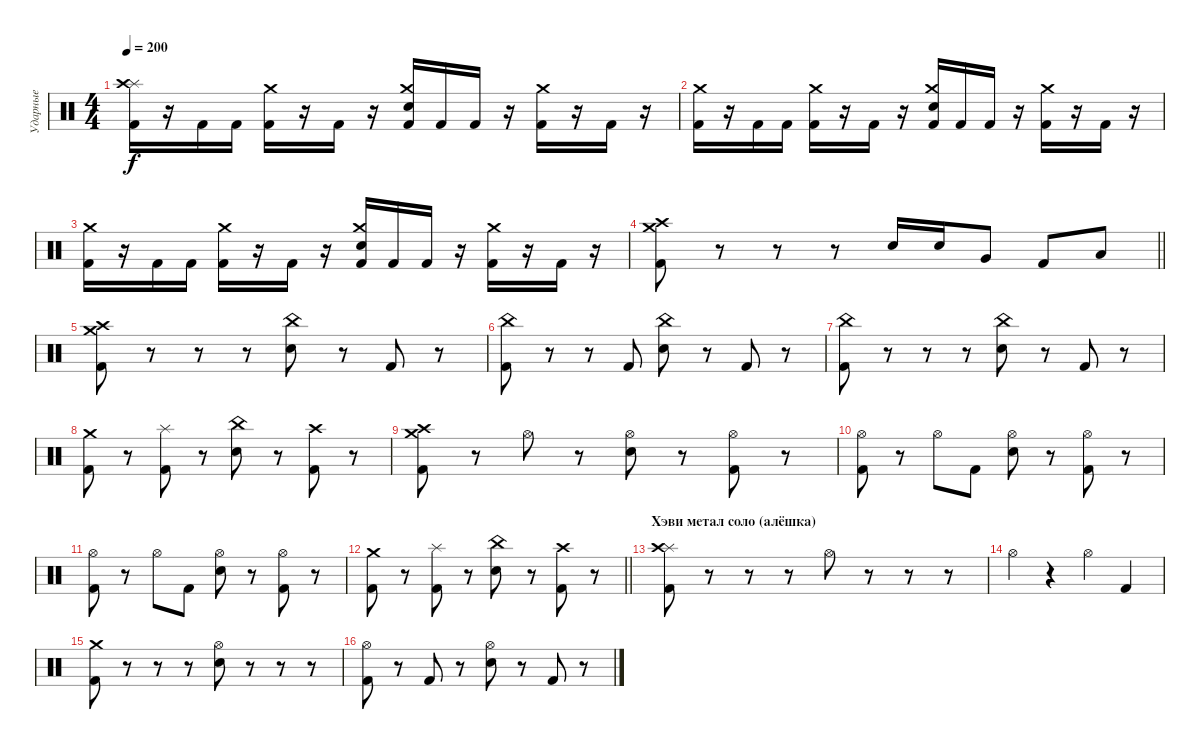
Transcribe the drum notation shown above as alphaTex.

\track ("Ударные" "Ударные") {instrument percussion}
\staff {score}
\articulation defaults
\ts (4 4)
\tempo 200
\clef neutral
\ks c
("Kick (hit) 2" "Splash (hit)" "Crash high (hit)").16{dy f} r.16 "Kick (hit) 2".16 "Kick (hit) 2".16 ("Kick (hit) 2" "Crash medium (hit)").16 r.16 "Kick (hit) 2".16 r.16 ("Kick (hit) 2" "Electric Snare (hit)" "Crash medium (hit)").16 "Kick (hit) 2".16 "Kick (hit) 2".16 r.16 ("Kick (hit) 2" "Crash medium (hit)").16 r.16 "Kick (hit) 2".16 r.16 |
("Kick (hit) 2" "Crash medium (hit)").16 r.16 "Kick (hit) 2".16 "Kick (hit) 2".16 ("Kick (hit) 2" "Crash medium (hit)").16 r.16 "Kick (hit) 2".16 r.16 ("Kick (hit) 2" "Electric Snare (hit)" "Crash medium (hit)").16 "Kick (hit) 2".16 "Kick (hit) 2".16 r.16 ("Kick (hit) 2" "Crash medium (hit)").16 r.16 "Kick (hit) 2".16 r.16 |
("Kick (hit) 2" "Crash medium (hit)").16 r.16 "Kick (hit) 2".16 "Kick (hit) 2".16 ("Kick (hit) 2" "Crash medium (hit)").16 r.16 "Kick (hit) 2".16 r.16 ("Kick (hit) 2" "Electric Snare (hit)" "Crash medium (hit)").16 "Kick (hit) 2".16 "Kick (hit) 2".16 r.16 ("Kick (hit) 2" "Crash medium (hit)").16 r.16 "Kick (hit) 2".16 r.16 |
\barLineRight lightlight
("Kick (hit) 2" "Crash high (hit)" "Crash medium (hit)").8 r.8 r.8 r.8 "Electric Snare (hit)".16 "Electric Snare (hit)".16 "Very Low Tom (hit)".8 "Kick (hit) 2".8 "Low Floor Tom (hit)".8 |
("Kick (hit) 2" "Crash high (hit)" "Crash medium (hit)").8 r.8 r.8 r.8 ("Electric Snare (hit)" "China (hit)").8 r.8 "Kick (hit) 2".8 r.8 |
("Kick (hit) 2" "China (hit)").8 r.8 r.8 "Kick (hit) 2".8 ("Electric Snare (hit)" "China (hit)").8 r.8 "Kick (hit) 2".8 r.8 |
("Kick (hit) 2" "China (hit)").8 r.8 r.8 r.8 ("Electric Snare (hit)" "China (hit)").8 r.8 "Kick (hit) 2".8 r.8 |
("Kick (hit) 2" "Crash medium (hit)").8 r.8 ("Kick (hit) 2" "Splash (hit)").8 r.8 ("Electric Snare (hit)" "China (hit)").8 r.8 ("Kick (hit) 2" "Crash high (hit)").8 r.8 |
("Kick (hit) 2" "Crash high (hit)" "Crash medium (hit)").8 r.8 "Hi-Hat (open)".8 r.8 ("Electric Snare (hit)" "Hi-Hat (open)").8 r.8 ("Kick (hit) 2" "Hi-Hat (open)").8 r.8 |
("Kick (hit) 2" "Hi-Hat (open)").8 r.8 "Hi-Hat (open)".8 "Kick (hit) 2".8 ("Electric Snare (hit)" "Hi-Hat (open)").8 r.8 ("Kick (hit) 2" "Hi-Hat (open)").8 r.8 |
("Kick (hit) 2" "Hi-Hat (open)").8 r.8 "Hi-Hat (open)".8 "Kick (hit) 2".8 ("Electric Snare (hit)" "Hi-Hat (open)").8 r.8 ("Kick (hit) 2" "Hi-Hat (open)").8 r.8 |
\barLineRight lightlight
("Kick (hit) 2" "Crash medium (hit)").8 r.8 ("Kick (hit) 2" "Splash (hit)").8 r.8 ("Electric Snare (hit)" "China (hit)").8 r.8 ("Kick (hit) 2" "Crash high (hit)").8 r.8 |
\section ("" "Хэви метал соло (алёшка)")
("Kick (hit) 2" "Splash (hit)" "Crash high (hit)").8 r.8 r.8 r.8 "Hi-Hat (open)".8 r.8 r.8 r.8 |
"Hi-Hat (open)".4 r.4 "Hi-Hat (open)".4 "Kick (hit) 2".4 |
("Kick (hit) 2" "Crash medium (hit)").8 r.8 r.8 r.8 ("Electric Snare (hit)" "Hi-Hat (open)").8 r.8 r.8 r.8 |
("Kick (hit) 2" "Hi-Hat (open)").8 r.8 "Kick (hit) 2".8 r.8 ("Electric Snare (hit)" "Hi-Hat (open)").8 r.8 "Kick (hit) 2".8 r.8
